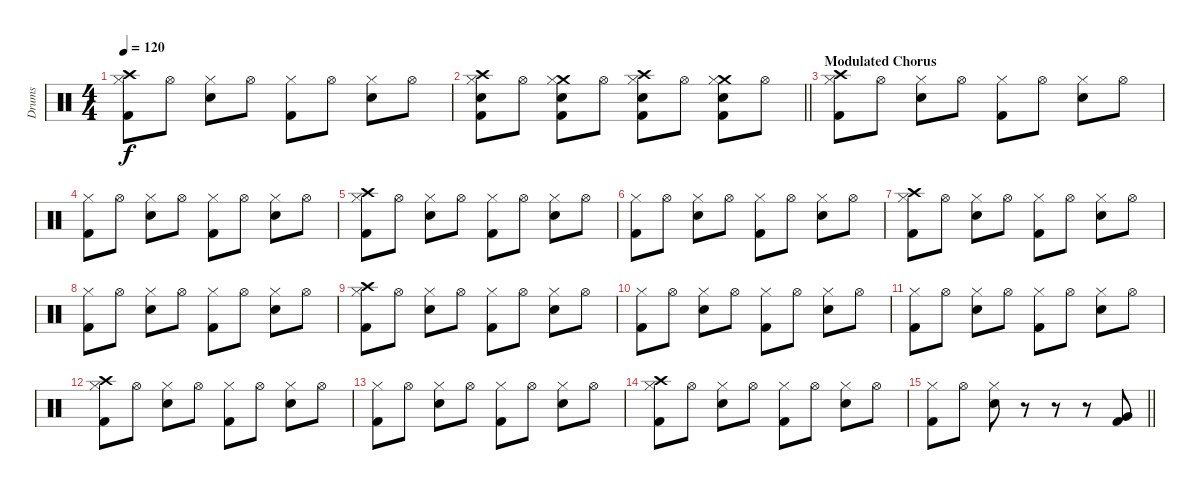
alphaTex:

\track ("Drums" "Drums") {instrument percussion}
\staff {score}
\articulation defaults
\ts (4 4)
\tempo 120
\clef neutral
\ks c
("Crash high (hit)" "Hi-Hat (closed)" "Kick (hit) 2").8{dy f} "Hi-Hat (open)".8 ("Hi-Hat (closed)" "Snare (hit) 2").8 "Hi-Hat (open)".8 ("Hi-Hat (closed)" "Kick (hit) 2").8 "Hi-Hat (open)".8 ("Hi-Hat (closed)" "Snare (hit) 2").8 "Hi-Hat (open)".8 |
\barLineRight lightlight
("Crash high (hit)" "Hi-Hat (closed)" "Snare (hit) 2" "Kick (hit) 2").8 "Hi-Hat (open)".8 ("Crash medium (hit)" "Hi-Hat (closed)" "Snare (hit) 2" "Kick (hit) 2").8 "Hi-Hat (open)".8 ("Crash high (hit)" "Hi-Hat (closed)" "Snare (hit) 2" "Kick (hit) 2").8 "Hi-Hat (open)".8 ("Crash medium (hit)" "Hi-Hat (closed)" "Snare (hit) 2" "Kick (hit) 2").8 "Hi-Hat (open)".8 |
\section ("" "Modulated Chorus")
("Crash high (hit)" "Hi-Hat (closed)" "Kick (hit) 2").8 "Hi-Hat (open)".8 ("Hi-Hat (closed)" "Snare (hit) 2").8 "Hi-Hat (open)".8 ("Hi-Hat (closed)" "Kick (hit) 2").8 "Hi-Hat (open)".8 ("Hi-Hat (closed)" "Snare (hit) 2").8 "Hi-Hat (open)".8 |
("Hi-Hat (closed)" "Kick (hit) 2").8 "Hi-Hat (open)".8 ("Hi-Hat (closed)" "Snare (hit) 2").8 "Hi-Hat (open)".8 ("Hi-Hat (closed)" "Kick (hit) 2").8 "Hi-Hat (open)".8 ("Hi-Hat (closed)" "Snare (hit) 2").8 "Hi-Hat (open)".8 |
("Crash high (hit)" "Hi-Hat (closed)" "Kick (hit) 2").8 "Hi-Hat (open)".8 ("Hi-Hat (closed)" "Snare (hit) 2").8 "Hi-Hat (open)".8 ("Hi-Hat (closed)" "Kick (hit) 2").8 "Hi-Hat (open)".8 ("Hi-Hat (closed)" "Snare (hit) 2").8 "Hi-Hat (open)".8 |
("Hi-Hat (closed)" "Kick (hit) 2").8 "Hi-Hat (open)".8 ("Hi-Hat (closed)" "Snare (hit) 2").8 "Hi-Hat (open)".8 ("Hi-Hat (closed)" "Kick (hit) 2").8 "Hi-Hat (open)".8 ("Hi-Hat (closed)" "Snare (hit) 2").8 "Hi-Hat (open)".8 |
("Crash high (hit)" "Hi-Hat (closed)" "Kick (hit) 2").8 "Hi-Hat (open)".8 ("Hi-Hat (closed)" "Snare (hit) 2").8 "Hi-Hat (open)".8 ("Hi-Hat (closed)" "Kick (hit) 2").8 "Hi-Hat (open)".8 ("Hi-Hat (closed)" "Snare (hit) 2").8 "Hi-Hat (open)".8 |
("Hi-Hat (closed)" "Kick (hit) 2").8 "Hi-Hat (open)".8 ("Hi-Hat (closed)" "Snare (hit) 2").8 "Hi-Hat (open)".8 ("Hi-Hat (closed)" "Kick (hit) 2").8 "Hi-Hat (open)".8 ("Hi-Hat (closed)" "Snare (hit) 2").8 "Hi-Hat (open)".8 |
("Crash high (hit)" "Hi-Hat (closed)" "Kick (hit) 2").8 "Hi-Hat (open)".8 ("Hi-Hat (closed)" "Snare (hit) 2").8 "Hi-Hat (open)".8 ("Hi-Hat (closed)" "Kick (hit) 2").8 "Hi-Hat (open)".8 ("Hi-Hat (closed)" "Snare (hit) 2").8 "Hi-Hat (open)".8 |
("Hi-Hat (closed)" "Kick (hit) 2").8 "Hi-Hat (open)".8 ("Hi-Hat (closed)" "Snare (hit) 2").8 "Hi-Hat (open)".8 ("Hi-Hat (closed)" "Kick (hit) 2").8 "Hi-Hat (open)".8 ("Hi-Hat (closed)" "Snare (hit) 2").8 "Hi-Hat (open)".8 |
("Hi-Hat (closed)" "Kick (hit) 2").8 "Hi-Hat (open)".8 ("Hi-Hat (closed)" "Snare (hit) 2").8 "Hi-Hat (open)".8 ("Hi-Hat (closed)" "Kick (hit) 2").8 "Hi-Hat (open)".8 ("Hi-Hat (closed)" "Snare (hit) 2").8 "Hi-Hat (open)".8 |
("Crash high (hit)" "Hi-Hat (closed)" "Kick (hit) 2").8 "Hi-Hat (open)".8 ("Hi-Hat (closed)" "Snare (hit) 2").8 "Hi-Hat (open)".8 ("Hi-Hat (closed)" "Kick (hit) 2").8 "Hi-Hat (open)".8 ("Hi-Hat (closed)" "Snare (hit) 2").8 "Hi-Hat (open)".8 |
("Hi-Hat (closed)" "Kick (hit) 2").8 "Hi-Hat (open)".8 ("Hi-Hat (closed)" "Snare (hit) 2").8 "Hi-Hat (open)".8 ("Hi-Hat (closed)" "Kick (hit) 2").8 "Hi-Hat (open)".8 ("Hi-Hat (closed)" "Snare (hit) 2").8 "Hi-Hat (open)".8 |
("Crash high (hit)" "Hi-Hat (closed)" "Kick (hit) 2").8 "Hi-Hat (open)".8 ("Hi-Hat (closed)" "Snare (hit) 2").8 "Hi-Hat (open)".8 ("Hi-Hat (closed)" "Kick (hit) 2").8 "Hi-Hat (open)".8 ("Hi-Hat (closed)" "Snare (hit) 2").8 "Hi-Hat (open)".8 |
\barLineRight lightlight
("Hi-Hat (closed)" "Kick (hit) 2").8 "Hi-Hat (open)".8 ("Hi-Hat (closed)" "Snare (hit) 2").8 r.8 r.8 r.8 ("Very Low Tom (hit)" "Kick (hit) 2").8
